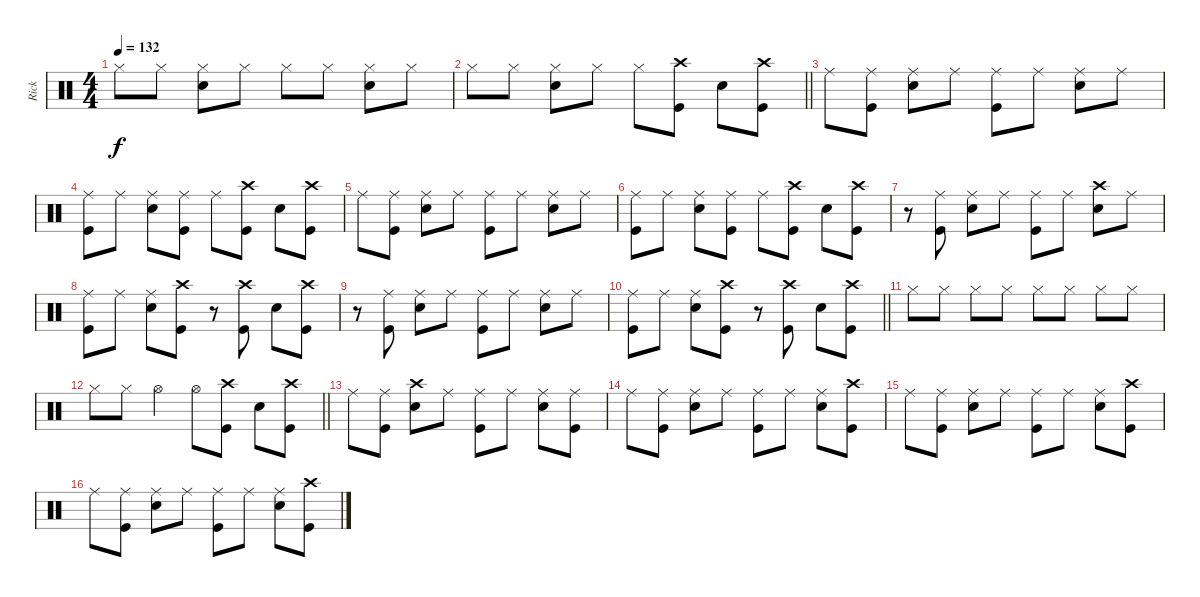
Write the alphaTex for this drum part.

\track ("Rick" "Rick") {instrument percussion}
\staff {score}
\articulation defaults
\ts (4 4)
\tempo 132
\clef neutral
\ks aminor "Hi-Hat (closed)".8{dy f} "Hi-Hat (closed)".8
("Hi-Hat (closed)" "Snare (hit) 2").8 "Hi-Hat (closed)".8 "Hi-Hat (closed)".8 "Hi-Hat (closed)".8 ("Hi-Hat (closed)" "Snare (hit) 2").8 "Hi-Hat (closed)".8 |
\barLineRight lightlight "Hi-Hat (closed)".8 "Hi-Hat (closed)".8
("Hi-Hat (closed)" "Snare (hit) 2").8 "Hi-Hat (closed)".8 "Hi-Hat (closed)".8 ("Crash high (hit)" "Kick (hit)").8 "Snare (hit) 2".8 ("Crash high (hit)" "Kick (hit)").8 |
"Ride (middle)".8 ("Ride (middle)" "Kick (hit)").8 ("Ride (middle)" "Snare (hit) 2").8 "Ride (middle)".8 ("Ride (middle)" "Kick (hit)").8 "Ride (middle)".8 ("Ride (middle)" "Snare (hit) 2").8 "Ride (middle)".8 |
("Ride (middle)" "Kick (hit)").8 "Ride (middle)".8 ("Ride (middle)" "Snare (hit) 2").8 ("Ride (middle)" "Kick (hit)").8 "Ride (middle)".8 ("Crash high (hit)" "Kick (hit)").8 "Snare (hit) 2".8 ("Crash high (hit)" "Kick (hit)").8 |
"Ride (middle)".8 ("Ride (middle)" "Kick (hit)").8 ("Ride (middle)" "Snare (hit) 2").8 "Ride (middle)".8 ("Ride (middle)" "Kick (hit)").8 "Ride (middle)".8 ("Ride (middle)" "Snare (hit) 2").8 "Ride (middle)".8 |
("Ride (middle)" "Kick (hit)").8 "Ride (middle)".8 ("Ride (middle)" "Snare (hit) 2").8 ("Ride (middle)" "Kick (hit)").8 "Ride (middle)".8 ("Crash high (hit)" "Kick (hit)").8 "Snare (hit) 2".8 ("Crash high (hit)" "Kick (hit)").8 |
r.8 ("Ride (middle)" "Kick (hit)").8 ("Ride (middle)" "Snare (hit) 2").8 "Ride (middle)".8 ("Ride (middle)" "Kick (hit)").8 "Ride (middle)".8 ("Crash high (hit)" "Snare (hit) 2").8 "Ride (middle)".8 |
("Ride (middle)" "Kick (hit)").8 "Ride (middle)".8 ("Ride (middle)" "Snare (hit) 2").8 ("Crash high (hit)" "Kick (hit)").8 r.8 ("Crash high (hit)" "Kick (hit)").8 "Snare (hit) 2".8 ("Crash high (hit)" "Kick (hit)").8 |
r.8 ("Ride (middle)" "Kick (hit)").8 ("Ride (middle)" "Snare (hit) 2").8 "Ride (middle)".8 ("Ride (middle)" "Kick (hit)").8 "Ride (middle)".8 ("Ride (middle)" "Snare (hit) 2").8 "Ride (middle)".8 |
\barLineRight lightlight
("Ride (middle)" "Kick (hit)").8 "Ride (middle)".8 ("Ride (middle)" "Snare (hit) 2").8 ("Crash high (hit)" "Kick (hit)").8 r.8 ("Crash high (hit)" "Kick (hit)").8 "Snare (hit) 2".8 ("Crash high (hit)" "Kick (hit)").8 |
"Hi-Hat (closed)".8 "Hi-Hat (closed)".8 "Hi-Hat (closed)".8 "Hi-Hat (closed)".8 "Hi-Hat (closed)".8 "Hi-Hat (closed)".8 "Hi-Hat (closed)".8 "Hi-Hat (closed)".8 |
\barLineRight lightlight "Hi-Hat (closed)".8 "Hi-Hat (closed)".8 "Hi-Hat (open)".4 "Hi-Hat (open)".8
("Crash high (hit)" "Kick (hit)").8 "Snare (hit) 2".8 ("Crash high (hit)" "Kick (hit)").8 |
"Ride (middle)".8 ("Ride (middle)" "Kick (hit)").8 ("Crash high (hit)" "Snare (hit) 2").8 "Ride (middle)".8 ("Ride (middle)" "Kick (hit)").8 "Ride (middle)".8 ("Ride (middle)" "Snare (hit) 2").8 ("Ride (middle)" "Kick (hit)").8 |
"Ride (middle)".8 ("Ride (middle)" "Kick (hit)").8 ("Ride (middle)" "Snare (hit) 2").8 "Ride (middle)".8 ("Ride (middle)" "Kick (hit)").8 "Ride (middle)".8 ("Ride (middle)" "Snare (hit) 2").8 ("Crash high (hit)" "Kick (hit)").8 |
"Ride (middle)".8 ("Ride (middle)" "Kick (hit)").8 ("Ride (middle)" "Snare (hit) 2").8 "Ride (middle)".8 ("Ride (middle)" "Kick (hit)").8 "Ride (middle)".8 ("Ride (middle)" "Snare (hit) 2").8 ("Crash high (hit)" "Kick (hit)").8 |
"Ride (middle)".8 ("Ride (middle)" "Kick (hit)").8 ("Ride (middle)" "Snare (hit) 2").8 "Ride (middle)".8 ("Ride (middle)" "Kick (hit)").8 "Ride (middle)".8 ("Ride (middle)" "Snare (hit) 2").8 ("Crash high (hit)" "Kick (hit)").8
